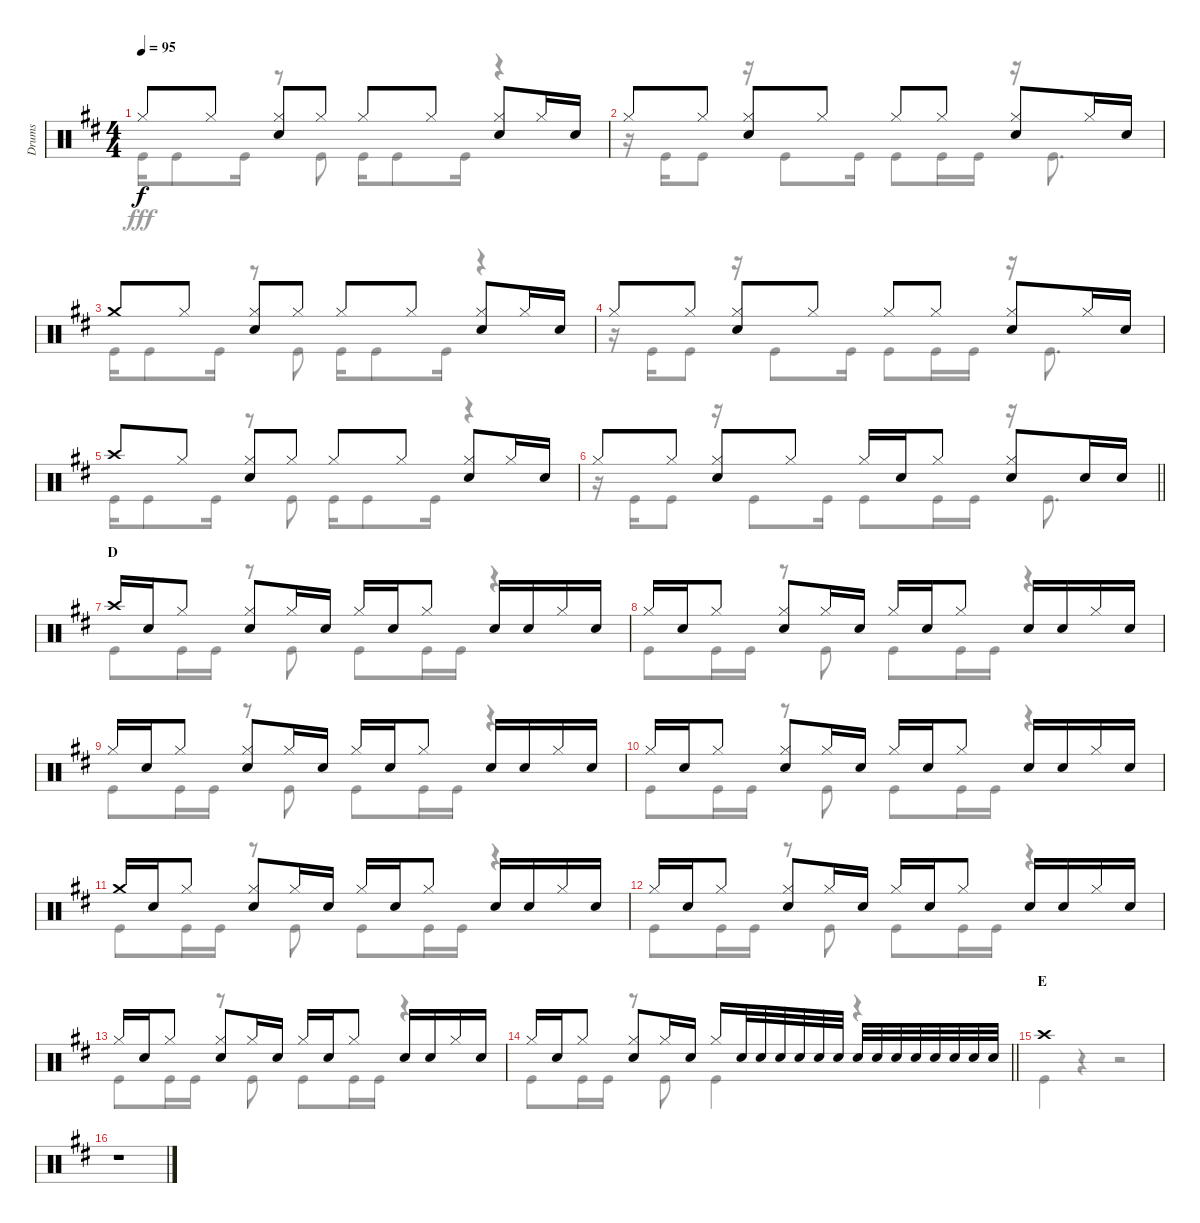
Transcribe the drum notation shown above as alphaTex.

\track ("Drums" "Drums") {instrument percussion}
\staff {score}
\articulation defaults
\voice
\ts (4 4)
\tempo 95
\clef neutral
\ks d "Hi-Hat (closed)".8{dy f} "Hi-Hat (closed)".8
("Hi-Hat (closed)" "Snare (hit) 2").8 "Hi-Hat (closed)".8 "Hi-Hat (closed)".8 "Hi-Hat (closed)".8 ("Hi-Hat (closed)" "Snare (hit) 2").8 "Hi-Hat (closed)".16 "Snare (hit) 2".16 |
"Hi-Hat (closed)".8 "Hi-Hat (closed)".8 ("Hi-Hat (closed)" "Snare (hit) 2").8 "Hi-Hat (closed)".8 "Hi-Hat (closed)".8 "Hi-Hat (closed)".8 ("Hi-Hat (closed)" "Snare (hit) 2").8 "Hi-Hat (closed)".16 "Snare (hit) 2".16 |
"Crash medium (hit)".8 "Hi-Hat (closed)".8 ("Hi-Hat (closed)" "Snare (hit) 2").8 "Hi-Hat (closed)".8 "Hi-Hat (closed)".8 "Hi-Hat (closed)".8 ("Hi-Hat (closed)" "Snare (hit) 2").8 "Hi-Hat (closed)".16 "Snare (hit) 2".16 |
"Hi-Hat (closed)".8 "Hi-Hat (closed)".8 ("Hi-Hat (closed)" "Snare (hit) 2").8 "Hi-Hat (closed)".8 "Hi-Hat (closed)".8 "Hi-Hat (closed)".8 ("Hi-Hat (closed)" "Snare (hit) 2").8 "Hi-Hat (closed)".16 "Snare (hit) 2".16 |
"Crash high (hit)".8 "Hi-Hat (closed)".8 ("Hi-Hat (closed)" "Snare (hit) 2").8 "Hi-Hat (closed)".8 "Hi-Hat (closed)".8 "Hi-Hat (closed)".8 ("Hi-Hat (closed)" "Snare (hit) 2").8 "Hi-Hat (closed)".16 "Snare (hit) 2".16 |
\barLineRight lightlight "Hi-Hat (closed)".8 "Hi-Hat (closed)".8
("Hi-Hat (closed)" "Snare (hit) 2").8 "Hi-Hat (closed)".8 "Hi-Hat (closed)".16 "Snare (hit) 2".16 "Hi-Hat (closed)".8 ("Hi-Hat (closed)" "Snare (hit) 2").8 "Snare (hit) 2".16 "Snare (hit) 2".16 |
\section ("" "D")
"Crash high (hit)".16 "Snare (hit) 2".16 "Hi-Hat (closed)".8 ("Hi-Hat (closed)" "Snare (hit) 2").8 "Hi-Hat (closed)".16 "Snare (hit) 2".16 "Hi-Hat (closed)".16 "Snare (hit) 2".16 "Hi-Hat (closed)".8 "Snare (hit) 2".16 "Snare (hit) 2".16 "Hi-Hat (closed)".16 "Snare (hit) 2".16 |
"Hi-Hat (closed)".16 "Snare (hit) 2".16 "Hi-Hat (closed)".8 ("Hi-Hat (closed)" "Snare (hit) 2").8 "Hi-Hat (closed)".16 "Snare (hit) 2".16 "Hi-Hat (closed)".16 "Snare (hit) 2".16 "Hi-Hat (closed)".8 "Snare (hit) 2".16 "Snare (hit) 2".16 "Hi-Hat (closed)".16 "Snare (hit) 2".16 |
"Hi-Hat (closed)".16 "Snare (hit) 2".16 "Hi-Hat (closed)".8 ("Hi-Hat (closed)" "Snare (hit) 2").8 "Hi-Hat (closed)".16 "Snare (hit) 2".16 "Hi-Hat (closed)".16 "Snare (hit) 2".16 "Hi-Hat (closed)".8 "Snare (hit) 2".16 "Snare (hit) 2".16 "Hi-Hat (closed)".16 "Snare (hit) 2".16 |
"Hi-Hat (closed)".16 "Snare (hit) 2".16 "Hi-Hat (closed)".8 ("Hi-Hat (closed)" "Snare (hit) 2").8 "Hi-Hat (closed)".16 "Snare (hit) 2".16 "Hi-Hat (closed)".16 "Snare (hit) 2".16 "Hi-Hat (closed)".8 "Snare (hit) 2".16 "Snare (hit) 2".16 "Hi-Hat (closed)".16 "Snare (hit) 2".16 |
"Crash medium (hit)".16 "Snare (hit) 2".16 "Hi-Hat (closed)".8 ("Hi-Hat (closed)" "Snare (hit) 2").8 "Hi-Hat (closed)".16 "Snare (hit) 2".16 "Hi-Hat (closed)".16 "Snare (hit) 2".16 "Hi-Hat (closed)".8 "Snare (hit) 2".16 "Snare (hit) 2".16 "Hi-Hat (closed)".16 "Snare (hit) 2".16 |
"Hi-Hat (closed)".16 "Snare (hit) 2".16 "Hi-Hat (closed)".8 ("Hi-Hat (closed)" "Snare (hit) 2").8 "Hi-Hat (closed)".16 "Snare (hit) 2".16 "Hi-Hat (closed)".16 "Snare (hit) 2".16 "Hi-Hat (closed)".8 "Snare (hit) 2".16 "Snare (hit) 2".16 "Hi-Hat (closed)".16 "Snare (hit) 2".16 |
"Hi-Hat (closed)".16 "Snare (hit) 2".16 "Hi-Hat (closed)".8 ("Hi-Hat (closed)" "Snare (hit) 2").8 "Hi-Hat (closed)".16 "Snare (hit) 2".16 "Hi-Hat (closed)".16 "Snare (hit) 2".16 "Hi-Hat (closed)".8 "Snare (hit) 2".16 "Snare (hit) 2".16 "Hi-Hat (closed)".16 "Snare (hit) 2".16 |
\barLineRight lightlight "Hi-Hat (closed)".16 "Snare (hit) 2".16 "Hi-Hat (closed)".8
("Hi-Hat (closed)" "Snare (hit) 2").8 "Hi-Hat (closed)".16 "Snare (hit) 2".16 "Hi-Hat (closed)".16 "Snare (hit) 2".32 "Snare (hit) 2".32 "Snare (hit) 2".32 "Snare (hit) 2".32 "Snare (hit) 2".32 "Snare (hit) 2".32 "Snare (hit) 2".32 "Snare (hit) 2".32 "Snare (hit) 2".32 "Snare (hit) 2".32 "Snare (hit) 2".32 "Snare (hit) 2".32 "Snare (hit) 2".32 "Snare (hit) 2".32 |
\section ("" "E")
"Crash high (hit)".1 |
r.1
\voice
\clef neutral
\ottava regular
\simile none
\ks d "Kick (hit)".16{dy fff} "Kick (hit)".8 "Kick (hit)".16
r.8 "Kick (hit)".8 "Kick (hit)".16 "Kick (hit)".8 "Kick (hit)".16 r.4 |
r.16 "Kick (hit)".16 "Kick (hit)".8 r.16 "Kick (hit)".8 "Kick (hit)".16 "Kick (hit)".8 "Kick (hit)".16 "Kick (hit)".16 r.16 "Kick (hit)".8{d} |
"Kick (hit)".16 "Kick (hit)".8 "Kick (hit)".16 r.8 "Kick (hit)".8 "Kick (hit)".16 "Kick (hit)".8 "Kick (hit)".16 r.4 |
r.16 "Kick (hit)".16 "Kick (hit)".8 r.16 "Kick (hit)".8 "Kick (hit)".16 "Kick (hit)".8 "Kick (hit)".16 "Kick (hit)".16 r.16 "Kick (hit)".8{d} |
"Kick (hit)".16 "Kick (hit)".8 "Kick (hit)".16 r.8 "Kick (hit)".8 "Kick (hit)".16 "Kick (hit)".8 "Kick (hit)".16 r.4 |
\barLineRight lightlight
r.16 "Kick (hit)".16 "Kick (hit)".8 r.16 "Kick (hit)".8 "Kick (hit)".16 "Kick (hit)".8 "Kick (hit)".16 "Kick (hit)".16 r.16 "Kick (hit)".8{d} |
"Kick (hit)".8 "Kick (hit)".16 "Kick (hit)".16 r.8 "Kick (hit)".8 "Kick (hit)".8 "Kick (hit)".16 "Kick (hit)".16 r.4 |
"Kick (hit)".8 "Kick (hit)".16 "Kick (hit)".16 r.8 "Kick (hit)".8 "Kick (hit)".8 "Kick (hit)".16 "Kick (hit)".16 r.4 |
"Kick (hit)".8 "Kick (hit)".16 "Kick (hit)".16 r.8 "Kick (hit)".8 "Kick (hit)".8 "Kick (hit)".16 "Kick (hit)".16 r.4 |
"Kick (hit)".8 "Kick (hit)".16 "Kick (hit)".16 r.8 "Kick (hit)".8 "Kick (hit)".8 "Kick (hit)".16 "Kick (hit)".16 r.4 |
"Kick (hit)".8 "Kick (hit)".16 "Kick (hit)".16 r.8 "Kick (hit)".8 "Kick (hit)".8 "Kick (hit)".16 "Kick (hit)".16 r.4 |
"Kick (hit)".8 "Kick (hit)".16 "Kick (hit)".16 r.8 "Kick (hit)".8 "Kick (hit)".8 "Kick (hit)".16 "Kick (hit)".16 r.4 |
"Kick (hit)".8 "Kick (hit)".16 "Kick (hit)".16 r.8 "Kick (hit)".8 "Kick (hit)".8 "Kick (hit)".16 "Kick (hit)".16 r.4 |
\barLineRight lightlight "Kick (hit)".8 "Kick (hit)".16 "Kick (hit)".16
r.8 "Kick (hit)".8 "Kick (hit)".4 r.4 |
"Kick (hit)".4 r.4 r.2 |
r.1
